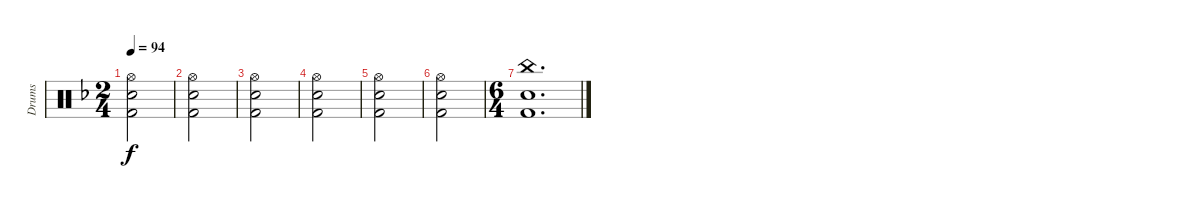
\track ("Drums" "Drums") {instrument percussion}
\staff {score}
\articulation defaults
\ts (2 4)
\tempo 94
\clef neutral
\ks dminor
("Hi-Hat (open)" "Snare (hit) 2" "Kick (hit) 2").2{dy f} |
("Hi-Hat (open)" "Snare (hit) 2" "Kick (hit) 2").2 |
("Hi-Hat (open)" "Snare (hit) 2" "Kick (hit) 2").2 |
("Hi-Hat (open)" "Snare (hit) 2" "Kick (hit) 2").2 |
("Hi-Hat (open)" "Snare (hit) 2" "Kick (hit) 2").2 |
("Hi-Hat (open)" "Snare (hit) 2" "Kick (hit) 2").2 |
\ts (6 4)
("China (hit)" "Snare (hit) 2" "Kick (hit) 2").1{d}
